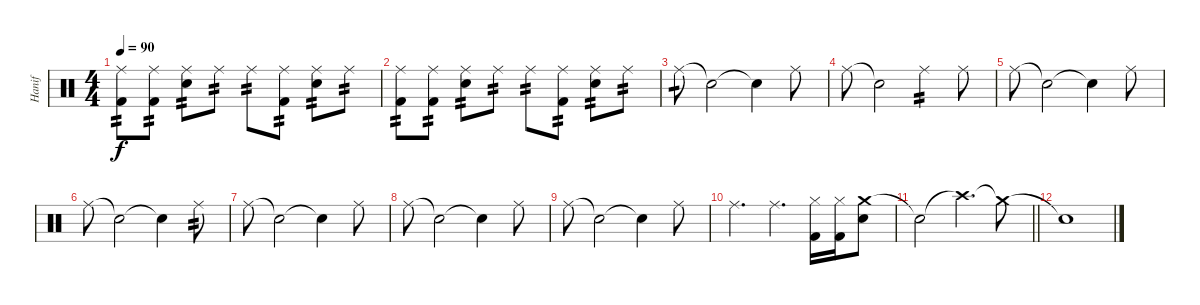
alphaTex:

\track ("Hanif" "Hanif") {instrument percussion}
\staff {score}
\articulation defaults
\ts (4 4)
\tempo 90
\clef neutral
\ks c
("Ride (middle)" "Kick (hit) 2").8{tp 2 dy f} ("Ride (middle)" "Kick (hit) 2").8{tp 2} ("Ride (middle)" "Snare (hit) 2").8{tp 2} "Ride (middle)".8{tp 2} "Ride (middle)".8{tp 2} ("Ride (middle)" "Kick (hit) 2").8{tp 2} ("Ride (middle)" "Snare (hit) 2").8{tp 2} "Ride (middle)".8{tp 2} |
("Ride (middle)" "Kick (hit) 2").8{tp 2} ("Ride (middle)" "Kick (hit) 2").8{tp 2} ("Ride (middle)" "Snare (hit) 2").8{tp 2} "Ride (middle)".8{tp 2} "Ride (middle)".8{tp 2} ("Ride (middle)" "Kick (hit) 2").8{tp 2} ("Ride (middle)" "Snare (hit) 2").8{tp 2} "Ride (middle)".8{tp 2} |
"Ride (middle)".8{tp 1} "Snare (hit)"{t}.2 "Snare (hit)"{t}.4 "Ride (middle)".8 |
"Ride (middle)".8 "Snare (hit)"{t}.2 "Ride (middle)".4{tp 2} "Ride (middle)".8 |
"Ride (middle)".8 "Snare (hit)"{t}.2 "Snare (hit)"{t}.4 "Ride (middle)".8 |
"Ride (middle)".8 "Snare (hit)"{t}.2 "Snare (hit)"{t}.4 "Ride (middle)".8{tp 2} |
"Ride (middle)".8 "Snare (hit)"{t}.2 "Snare (hit)"{t}.4 "Ride (middle)".8 |
"Ride (middle)".8 "Snare (hit)"{t}.2 "Snare (hit)"{t}.4 "Ride (middle)".8 |
"Ride (middle)".8 "Snare (hit)"{t}.2 "Snare (hit)"{t}.4 "Ride (middle)".8 |
"Ride (middle)".4{d} "Ride (middle)".4{d} ("Hi-Hat (closed)" "Kick (hit) 2").16 ("Hi-Hat (closed)" "Kick (hit) 2").16 ("Crash medium (hit)" "Snare (hit) 2").8 |
\barLineRight lightlight "Snare (hit)"{t}.2 "Crash high (hit)"{t}.4{d} "Crash medium (hit)"{t}.8
|
"Snare (hit)"{t}.1
